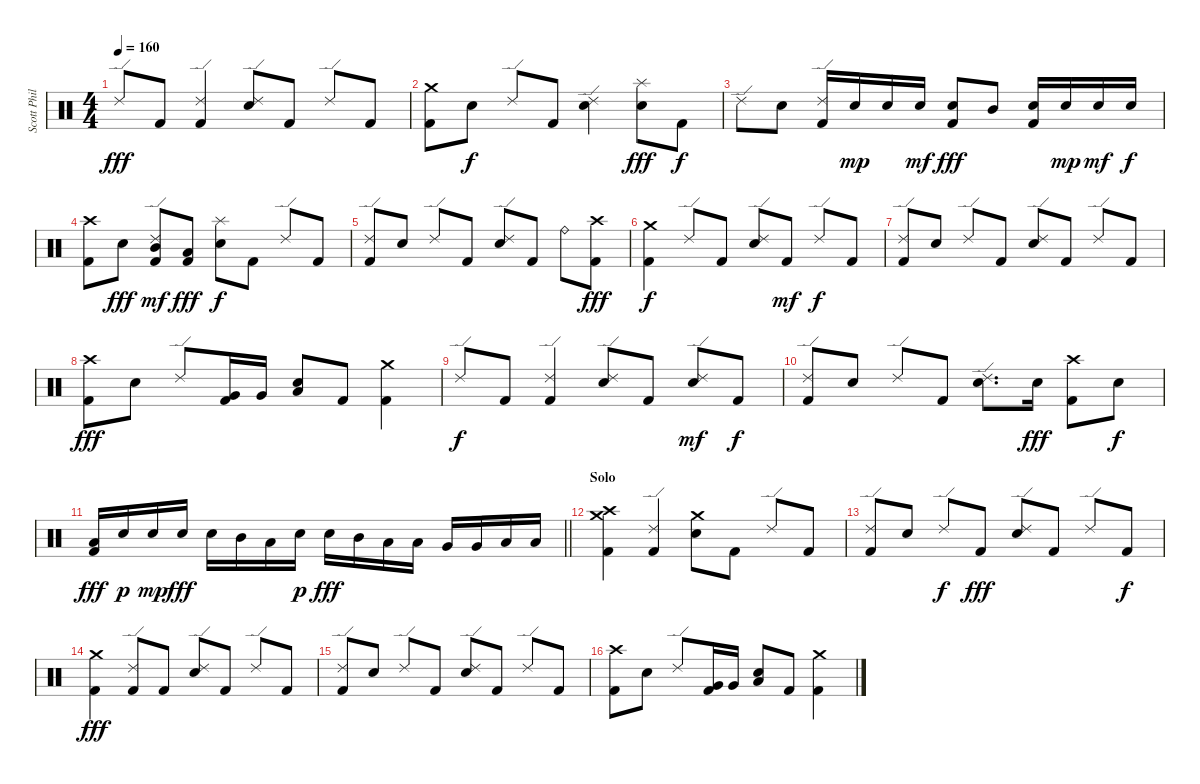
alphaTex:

\track ("Scott Phillips [Drums]" "Scott Phil") {instrument percussion}
\staff {score}
\articulation defaults
\ts (4 4)
\tempo 160
\clef neutral
\ks c "Ride (edge) 2".8{dy fff} "Kick (hit) 2".8
("Ride (edge) 2" "Kick (hit) 2").4 ("Ride (edge) 2" "Electric Snare (hit)").8 "Kick (hit) 2".8 "Ride (edge) 2".8 "Kick (hit) 2".8 |
("Crash medium (hit)" "Kick (hit) 2").8 "Electric Snare (hit)".8{dy f} "Ride (edge) 2".8 "Kick (hit) 2".8 ("Ride (edge) 2" "Electric Snare (hit)").4 ("Splash (hit)" "Electric Snare (hit)").8{dy fff} "Kick (hit) 2".8{dy f} |
"Ride (edge) 2".8 "Electric Snare (hit)".8 ("Ride (edge) 2" "Kick (hit) 2").16 "Electric Snare (hit)".16{dy mp} "Electric Snare (hit)".16 "Electric Snare (hit)".16{dy mf} ("Electric Snare (hit)" "Kick (hit) 2").8{dy fff} "Mid Tom (hit)".8 ("Electric Snare (hit)" "Kick (hit) 2").16 "Electric Snare (hit)".16{dy mp} "Electric Snare (hit)".16{dy mf} "Electric Snare (hit)".16{dy f} |
("Crash high (hit)" "Kick (hit) 2").8 "Electric Snare (hit)".8{dy fff} ("Ride (edge) 2" "Mid Tom (hit)" "Kick (hit) 2").8{dy mf} ("Low Tom (hit)" "Kick (hit) 2").8{dy fff} ("Splash (hit)" "Electric Snare (hit)").8{dy f} "Kick (hit) 2".8 "Ride (edge) 2".8 "Kick (hit) 2".8 |
("Ride (edge) 2" "Kick (hit) 2").8 "Electric Snare (hit)".8 "Ride (edge) 2".8 "Kick (hit) 2".8 ("Ride (edge) 2" "Electric Snare (hit)").8 "Kick (hit) 2".8 "Ride (bell)".8 ("Crash high (hit)" "Kick (hit) 2").8{dy fff} |
("Crash medium (hit)" "Kick (hit) 2").4{dy f} "Ride (edge) 2".8 "Kick (hit) 2".8 ("Ride (edge) 2" "Electric Snare (hit)").8 "Kick (hit) 2".8{dy mf} "Ride (edge) 2".8{dy f} "Kick (hit) 2".8 |
("Ride (edge) 2" "Kick (hit) 2").8 "Electric Snare (hit)".8 "Ride (edge) 2".8 "Kick (hit) 2".8 ("Ride (edge) 2" "Electric Snare (hit)").8 "Kick (hit) 2".8 "Ride (edge) 2".8 "Kick (hit) 2".8 |
("Crash high (hit)" "Kick (hit) 2").8{dy fff} "Electric Snare (hit)".8 "Ride (edge) 2".8 ("Very Low Tom (hit)" "Kick (hit) 2").16 "Very Low Tom (hit)".16 ("Low Floor Tom (hit)" "Electric Snare (hit)").8 "Kick (hit) 2".8 ("Crash medium (hit)" "Kick (hit) 2").4 |
"Ride (edge) 2".8{dy f} "Kick (hit) 2".8 ("Ride (edge) 2" "Kick (hit) 2").4 ("Ride (edge) 2" "Electric Snare (hit)").8 "Kick (hit) 2".8 ("Ride (edge) 2" "Electric Snare (hit)").8{dy mf} "Kick (hit) 2".8{dy f} |
("Ride (edge) 2" "Kick (hit) 2").8 "Electric Snare (hit)".8 "Ride (edge) 2".8 "Kick (hit) 2".8 ("Ride (edge) 2" "Electric Snare (hit)").8{d} "Electric Snare (hit)".16{dy fff} ("Crash high (hit)" "Kick (hit) 2").8 "Electric Snare (hit)".8{dy f} |
\barLineRight lightlight
("Low Floor Tom (hit)" "Kick (hit) 2").16{dy fff} "Electric Snare (hit)".16{dy p} "Electric Snare (hit)".16{dy mp} "Electric Snare (hit)".16{dy fff} "Electric Snare (hit)".16 "Mid Tom (hit)".16 "Low Tom (hit)".16 "Electric Snare (hit)".16{dy p} "Electric Snare (hit)".16{dy fff} "Mid Tom (hit)".16 "Low Tom (hit)".16 "Low Tom (hit)".16 "Very Low Tom (hit)".16 "Very Low Tom (hit)".16 "Low Floor Tom (hit)".16 "Low Floor Tom (hit)".16 |
\section ("" "Solo")
("Crash high (hit)" "Crash medium (hit)" "Kick (hit) 2").4 ("Ride (edge) 2" "Kick (hit) 2").4 ("Crash medium (hit)" "Electric Snare (hit)").8 "Kick (hit) 2".8 "Ride (edge) 2".8 "Kick (hit) 2".8 |
("Ride (edge) 2" "Kick (hit) 2").8 "Electric Snare (hit)".8 "Ride (edge) 2".8{dy f} "Kick (hit) 2".8{dy fff} ("Ride (edge) 2" "Electric Snare (hit)").8 "Kick (hit) 2".8 "Ride (edge) 2".8 "Kick (hit) 2".8{dy f} |
("Crash medium (hit)" "Kick (hit) 2").4{dy fff} ("Ride (edge) 2" "Kick (hit) 2").8 "Kick (hit) 2".8 ("Ride (edge) 2" "Electric Snare (hit)").8 "Kick (hit) 2".8 "Ride (edge) 2".8 "Kick (hit) 2".8 |
("Ride (edge) 2" "Kick (hit) 2").8 "Electric Snare (hit)".8 "Ride (edge) 2".8 "Kick (hit) 2".8 ("Ride (edge) 2" "Electric Snare (hit)").8 "Kick (hit) 2".8 "Ride (edge) 2".8 "Kick (hit) 2".8 |
("Crash high (hit)" "Kick (hit) 2").8 "Electric Snare (hit)".8 "Ride (edge) 2".8 ("Very Low Tom (hit)" "Kick (hit) 2").16 "Very Low Tom (hit)".16 ("Low Floor Tom (hit)" "Electric Snare (hit)").8 "Kick (hit) 2".8 ("Crash medium (hit)" "Kick (hit) 2").4
